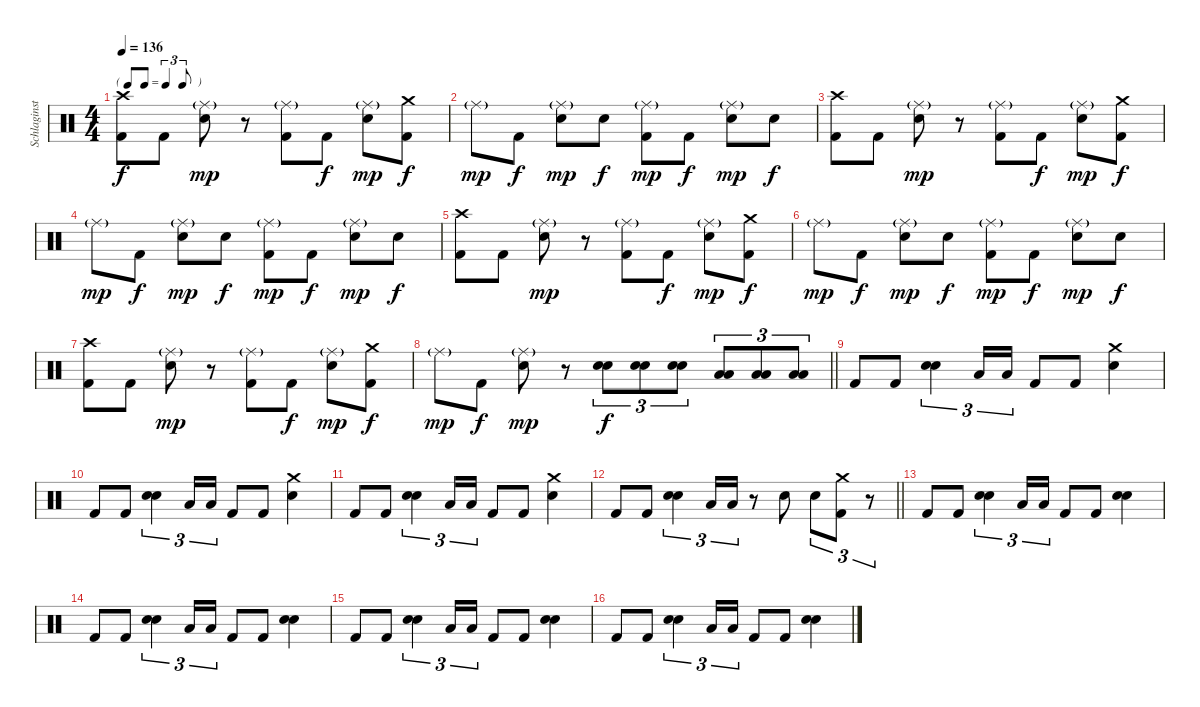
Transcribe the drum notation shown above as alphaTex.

\track ("Schlaginstrumente - Auswahl" "Schlaginst") {instrument percussion}
\staff {score}
\articulation defaults
\ts (4 4)
\tf triplet8th
\tempo 136
\clef neutral
\ks c
("Crash high (hit)" "Kick (hit) 2").8{dy f} "Kick (hit) 2".8 ("Ride (middle)"{g} "Snare (hit) 2").8{dy mp} r.8 ("Ride (middle)"{g} "Kick (hit) 2").8 "Kick (hit) 2".8{dy f} ("Ride (middle)"{g} "Snare (hit) 2").8{dy mp} ("Crash medium (hit)" "Kick (hit) 2").8{dy f} |
"Ride (middle)"{g}.8{dy mp} "Kick (hit) 2".8{dy f} ("Ride (middle)"{g} "Snare (hit) 2").8{dy mp} "Snare (hit) 2".8{dy f} ("Ride (middle)"{g} "Kick (hit) 2").8{dy mp} "Kick (hit) 2".8{dy f} ("Ride (middle)"{g} "Snare (hit) 2").8{dy mp} "Snare (hit) 2".8{dy f} |
("Crash high (hit)" "Kick (hit) 2").8 "Kick (hit) 2".8 ("Ride (middle)"{g} "Snare (hit) 2").8{dy mp} r.8 ("Ride (middle)"{g} "Kick (hit) 2").8 "Kick (hit) 2".8{dy f} ("Ride (middle)"{g} "Snare (hit) 2").8{dy mp} ("Crash medium (hit)" "Kick (hit) 2").8{dy f} |
"Ride (middle)"{g}.8{dy mp} "Kick (hit) 2".8{dy f} ("Ride (middle)"{g} "Snare (hit) 2").8{dy mp} "Snare (hit) 2".8{dy f} ("Ride (middle)"{g} "Kick (hit) 2").8{dy mp} "Kick (hit) 2".8{dy f} ("Ride (middle)"{g} "Snare (hit) 2").8{dy mp} "Snare (hit) 2".8{dy f} |
("Crash high (hit)" "Kick (hit) 2").8 "Kick (hit) 2".8 ("Ride (middle)"{g} "Snare (hit) 2").8{dy mp} r.8 ("Ride (middle)"{g} "Kick (hit) 2").8 "Kick (hit) 2".8{dy f} ("Ride (middle)"{g} "Snare (hit) 2").8{dy mp} ("Crash medium (hit)" "Kick (hit) 2").8{dy f} |
"Ride (middle)"{g}.8{dy mp} "Kick (hit) 2".8{dy f} ("Ride (middle)"{g} "Snare (hit) 2").8{dy mp} "Snare (hit) 2".8{dy f} ("Ride (middle)"{g} "Kick (hit) 2").8{dy mp} "Kick (hit) 2".8{dy f} ("Ride (middle)"{g} "Snare (hit) 2").8{dy mp} "Snare (hit) 2".8{dy f} |
("Crash high (hit)" "Kick (hit) 2").8 "Kick (hit) 2".8 ("Ride (middle)"{g} "Snare (hit) 2").8{dy mp} r.8 ("Ride (middle)"{g} "Kick (hit) 2").8 "Kick (hit) 2".8{dy f} ("Ride (middle)"{g} "Snare (hit) 2").8{dy mp} ("Crash medium (hit)" "Kick (hit) 2").8{dy f} |
\barLineRight lightlight "Ride (middle)"{g}.8{dy mp} "Kick (hit) 2".8{dy f}
("Ride (middle)"{g} "Snare (hit) 2").8{dy mp} r.8 ("Snare (hit) 2" "Snare (hit) 2").8{tu (3 2) bd 240 dy f} ("Snare (hit) 2" "Snare (hit) 2").8{tu (3 2) bd 240} ("Snare (hit) 2" "Snare (hit) 2").8{tu (3 2) bd 240} ("Low Tom (hit)" "Low Tom (hit)").8{tu (3 2) bd 240} ("Low Tom (hit)" "Low Tom (hit)").8{tu (3 2) bd 240} ("Low Tom (hit)" "Low Tom (hit)").8{tu (3 2) bd 240} |
"Kick (hit) 2".8 "Kick (hit) 2".8 ("Snare (hit) 2" "Snare (hit) 2").4{tu (3 2) bd 240} "Low Tom (hit)".16{tu (3 2)} "Low Floor Tom (hit)".16{tu (3 2)} "Kick (hit) 2".8 "Kick (hit) 2".8 ("Crash medium (hit)" "Snare (hit) 2").4 |
"Kick (hit) 2".8 "Kick (hit) 2".8 ("Snare (hit) 2" "Snare (hit) 2").4{tu (3 2) bd 240} "Low Tom (hit)".16{tu (3 2)} "Low Floor Tom (hit)".16{tu (3 2)} "Kick (hit) 2".8 "Kick (hit) 2".8 ("Crash medium (hit)" "Snare (hit) 2").4 |
"Kick (hit) 2".8 "Kick (hit) 2".8 ("Snare (hit) 2" "Snare (hit) 2").4{tu (3 2) bd 240} "Low Tom (hit)".16{tu (3 2)} "Low Floor Tom (hit)".16{tu (3 2)} "Kick (hit) 2".8 "Kick (hit) 2".8 ("Crash medium (hit)" "Snare (hit) 2").4 |
\barLineRight lightlight "Kick (hit) 2".8 "Kick (hit) 2".8
("Snare (hit) 2" "Snare (hit) 2").4{tu (3 2) bd 240} "Low Tom (hit)".16{tu (3 2)} "Low Floor Tom (hit)".16{tu (3 2)} r.8 "Snare (hit) 2".8 "Snare (hit) 2".8{tu (3 2)} ("Crash medium (hit)" "Kick (hit) 2").8{tu (3 2)} r.8{tu (3 2)} |
"Kick (hit) 2".8 "Kick (hit) 2".8 ("Snare (hit) 2" "Snare (hit) 2").4{tu (3 2) bd 240} "Low Tom (hit)".16{tu (3 2)} "Low Floor Tom (hit)".16{tu (3 2)} "Kick (hit) 2".8 "Kick (hit) 2".8 ("Snare (hit) 2" "Snare (hit) 2").4{bd 240} |
"Kick (hit) 2".8 "Kick (hit) 2".8 ("Snare (hit) 2" "Snare (hit) 2").4{tu (3 2) bd 240} "Low Tom (hit)".16{tu (3 2)} "Low Floor Tom (hit)".16{tu (3 2)} "Kick (hit) 2".8 "Kick (hit) 2".8 ("Snare (hit) 2" "Snare (hit) 2").4{bd 240} |
"Kick (hit) 2".8 "Kick (hit) 2".8 ("Snare (hit) 2" "Snare (hit) 2").4{tu (3 2) bd 240} "Low Tom (hit)".16{tu (3 2)} "Low Floor Tom (hit)".16{tu (3 2)} "Kick (hit) 2".8 "Kick (hit) 2".8 ("Snare (hit) 2" "Snare (hit) 2").4{bd 240} |
"Kick (hit) 2".8 "Kick (hit) 2".8 ("Snare (hit) 2" "Snare (hit) 2").4{tu (3 2) bd 240} "Low Tom (hit)".16{tu (3 2)} "Low Floor Tom (hit)".16{tu (3 2)} "Kick (hit) 2".8 "Kick (hit) 2".8 ("Snare (hit) 2" "Snare (hit) 2").4{bd 240}
